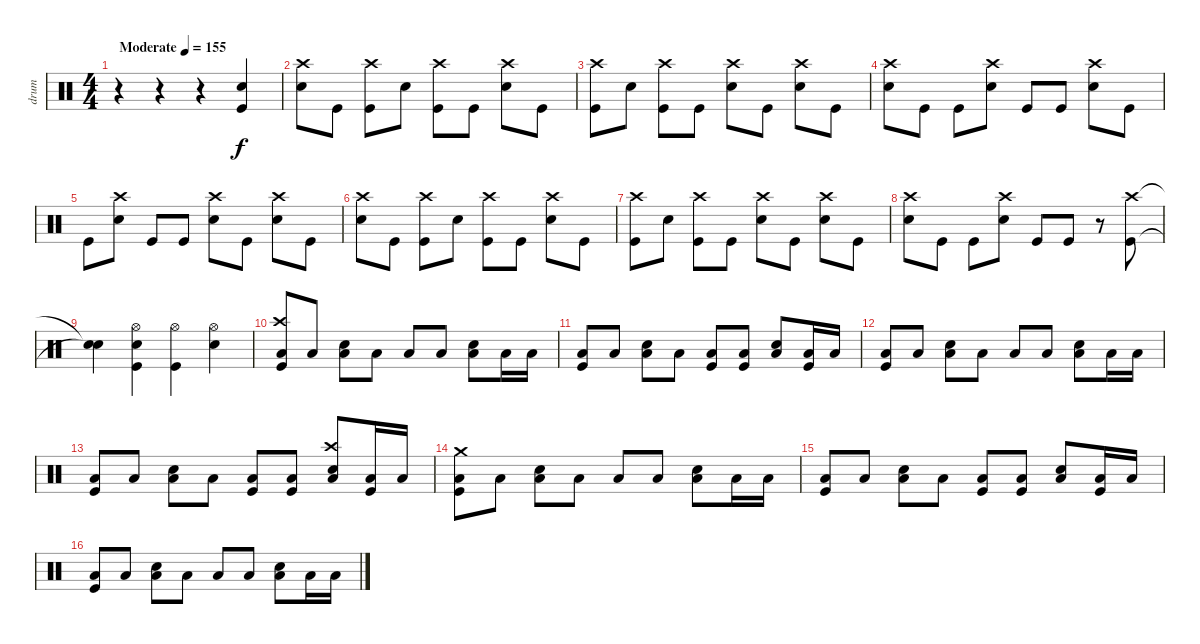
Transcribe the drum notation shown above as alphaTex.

\track ("drum" "drum") {instrument percussion}
\staff {score}
\articulation defaults
\ts (4 4)
\tempo (155 "Moderate")
\clef neutral
\ks c
r.4{dy f} r.4 r.4 ("Snare (hit) 2" "Kick (hit)").4 |
("Crash high (hit)" "Snare (hit) 2").8 "Kick (hit)".8 ("Crash high (hit)" "Kick (hit)").8 "Snare (hit) 2".8 ("Crash high (hit)" "Kick (hit)").8 "Kick (hit)".8 ("Crash high (hit)" "Snare (hit) 2").8 "Kick (hit)".8 |
("Crash high (hit)" "Kick (hit)").8 "Snare (hit) 2".8 ("Crash high (hit)" "Kick (hit)").8 "Kick (hit)".8 ("Crash high (hit)" "Snare (hit) 2").8 "Kick (hit)".8 ("Crash high (hit)" "Snare (hit) 2").8 "Kick (hit)".8 |
("Crash high (hit)" "Snare (hit) 2").8 "Kick (hit)".8 "Kick (hit)".8 ("Crash high (hit)" "Snare (hit) 2").8 "Kick (hit)".8 "Kick (hit)".8 ("Crash high (hit)" "Snare (hit) 2").8 "Kick (hit)".8 |
"Kick (hit)".8 ("Crash high (hit)" "Snare (hit) 2").8 "Kick (hit)".8 "Kick (hit)".8 ("Crash high (hit)" "Snare (hit) 2").8 "Kick (hit)".8 ("Crash high (hit)" "Snare (hit) 2").8 "Kick (hit)".8 |
("Crash high (hit)" "Snare (hit) 2").8 "Kick (hit)".8 ("Crash high (hit)" "Kick (hit)").8 "Snare (hit) 2".8 ("Crash high (hit)" "Kick (hit)").8 "Kick (hit)".8 ("Crash high (hit)" "Snare (hit) 2").8 "Kick (hit)".8 |
("Crash high (hit)" "Kick (hit)").8 "Snare (hit) 2".8 ("Crash high (hit)" "Kick (hit)").8 "Kick (hit)".8 ("Crash high (hit)" "Snare (hit) 2").8 "Kick (hit)".8 ("Crash high (hit)" "Snare (hit) 2").8 "Kick (hit)".8 |
("Crash high (hit)" "Snare (hit) 2").8 "Kick (hit)".8 "Kick (hit)".8 ("Crash high (hit)" "Snare (hit) 2").8 "Kick (hit)".8 "Kick (hit)".8 r.8 ("Crash high (hit)" "Kick (hit)").8 |
("Snare (hit)"{t} "Snare (hit)"{t}).4 ("Hi-Hat (open)" "Snare (hit) 2" "Kick (hit)").4 ("Hi-Hat (open)" "Kick (hit)").4 ("Hi-Hat (open)" "Snare (hit) 2").4 |
("Crash high (hit)" "Low Floor Tom (hit)" "Kick (hit)").8 "Low Floor Tom (hit)".8 ("Snare (hit) 2" "Low Floor Tom (hit)").8 "Low Floor Tom (hit)".8 "Low Floor Tom (hit)".8 "Low Floor Tom (hit)".8 ("Snare (hit) 2" "Low Floor Tom (hit)").8 "Low Floor Tom (hit)".16 "Low Tom (hit)".16 |
("Low Floor Tom (hit)" "Kick (hit)").8 "Low Floor Tom (hit)".8 ("Snare (hit) 2" "Low Floor Tom (hit)").8 "Low Floor Tom (hit)".8 ("Low Floor Tom (hit)" "Kick (hit)").8 ("Low Floor Tom (hit)" "Kick (hit)").8 ("Snare (hit) 2" "Low Floor Tom (hit)").8 ("Low Floor Tom (hit)" "Kick (hit)").16 "Low Tom (hit)".16 |
("Low Floor Tom (hit)" "Kick (hit)").8 "Low Floor Tom (hit)".8 ("Snare (hit) 2" "Low Floor Tom (hit)").8 "Low Floor Tom (hit)".8 "Low Floor Tom (hit)".8 "Low Floor Tom (hit)".8 ("Snare (hit) 2" "Low Floor Tom (hit)").8 "Low Floor Tom (hit)".16 "Low Tom (hit)".16 |
("Low Floor Tom (hit)" "Kick (hit)").8 "Low Floor Tom (hit)".8 ("Snare (hit) 2" "Low Floor Tom (hit)").8 "Low Floor Tom (hit)".8 ("Low Floor Tom (hit)" "Kick (hit)").8 ("Low Floor Tom (hit)" "Kick (hit)").8 ("Crash high (hit)" "Snare (hit) 2" "Low Floor Tom (hit)").8 ("Low Floor Tom (hit)" "Kick (hit)").16 "Low Tom (hit)".16 |
("Crash medium (hit)" "Low Floor Tom (hit)" "Kick (hit)").8 "Low Floor Tom (hit)".8 ("Snare (hit) 2" "Low Floor Tom (hit)").8 "Low Floor Tom (hit)".8 "Low Floor Tom (hit)".8 "Low Floor Tom (hit)".8 ("Snare (hit) 2" "Low Floor Tom (hit)").8 "Low Floor Tom (hit)".16 "Low Tom (hit)".16 |
("Low Floor Tom (hit)" "Kick (hit)").8 "Low Floor Tom (hit)".8 ("Snare (hit) 2" "Low Floor Tom (hit)").8 "Low Floor Tom (hit)".8 ("Low Floor Tom (hit)" "Kick (hit)").8 ("Low Floor Tom (hit)" "Kick (hit)").8 ("Snare (hit) 2" "Low Floor Tom (hit)").8 ("Low Floor Tom (hit)" "Kick (hit)").16 "Low Tom (hit)".16 |
("Low Floor Tom (hit)" "Kick (hit)").8 "Low Floor Tom (hit)".8 ("Snare (hit) 2" "Low Floor Tom (hit)").8 "Low Floor Tom (hit)".8 "Low Floor Tom (hit)".8 "Low Floor Tom (hit)".8 ("Snare (hit) 2" "Low Floor Tom (hit)").8 "Low Floor Tom (hit)".16 "Low Tom (hit)".16
